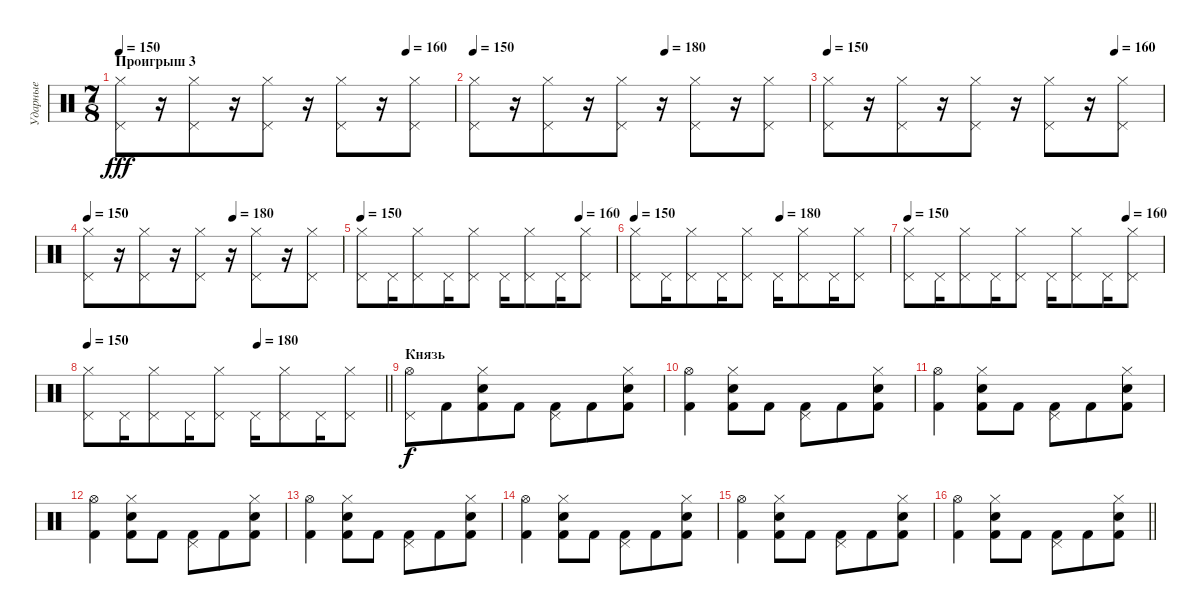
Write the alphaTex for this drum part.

\track ("Ударные" "Ударные") {instrument percussion}
\staff {score}
\articulation defaults
\ts (7 8)
\section ("" "Проигрыш 3")
\tempo 150
\tempo (160 0.8571428571428571)
\clef neutral
\ks c
("Pedal Hi-Hat (hit)" "Hi-Hat (closed)").8{dy fff} r.16 ("Pedal Hi-Hat (hit)" "Hi-Hat (closed)").8 r.16 ("Pedal Hi-Hat (hit)" "Hi-Hat (closed)").8 r.16 ("Pedal Hi-Hat (hit)" "Hi-Hat (closed)").8 r.16 ("Pedal Hi-Hat (hit)" "Hi-Hat (closed)").8 |
\tempo 150
\tempo (180 0.5714285714285714)
("Pedal Hi-Hat (hit)" "Hi-Hat (closed)").8 r.16 ("Pedal Hi-Hat (hit)" "Hi-Hat (closed)").8 r.16 ("Pedal Hi-Hat (hit)" "Hi-Hat (closed)").8 r.16 ("Pedal Hi-Hat (hit)" "Hi-Hat (closed)").8 r.16 ("Pedal Hi-Hat (hit)" "Hi-Hat (closed)").8 |
\tempo 150
\tempo (160 0.8571428571428571)
("Pedal Hi-Hat (hit)" "Hi-Hat (closed)").8 r.16 ("Pedal Hi-Hat (hit)" "Hi-Hat (closed)").8 r.16 ("Pedal Hi-Hat (hit)" "Hi-Hat (closed)").8 r.16 ("Pedal Hi-Hat (hit)" "Hi-Hat (closed)").8 r.16 ("Pedal Hi-Hat (hit)" "Hi-Hat (closed)").8 |
\tempo 150
\tempo (180 0.5714285714285714)
("Pedal Hi-Hat (hit)" "Hi-Hat (closed)").8 r.16 ("Pedal Hi-Hat (hit)" "Hi-Hat (closed)").8 r.16 ("Pedal Hi-Hat (hit)" "Hi-Hat (closed)").8 r.16 ("Pedal Hi-Hat (hit)" "Hi-Hat (closed)").8 r.16 ("Pedal Hi-Hat (hit)" "Hi-Hat (closed)").8 |
\tempo 150
\tempo (160 0.8571428571428571)
("Pedal Hi-Hat (hit)" "Hi-Hat (closed)").8 "Pedal Hi-Hat (hit)".16 ("Pedal Hi-Hat (hit)" "Hi-Hat (closed)").8 "Pedal Hi-Hat (hit)".16 ("Pedal Hi-Hat (hit)" "Hi-Hat (closed)").8 "Pedal Hi-Hat (hit)".16 ("Pedal Hi-Hat (hit)" "Hi-Hat (closed)").8 "Pedal Hi-Hat (hit)".16 ("Pedal Hi-Hat (hit)" "Hi-Hat (closed)").8 |
\tempo 150
\tempo (180 0.5714285714285714)
("Pedal Hi-Hat (hit)" "Hi-Hat (closed)").8 "Pedal Hi-Hat (hit)".16 ("Pedal Hi-Hat (hit)" "Hi-Hat (closed)").8 "Pedal Hi-Hat (hit)".16 ("Pedal Hi-Hat (hit)" "Hi-Hat (closed)").8 "Pedal Hi-Hat (hit)".16 ("Pedal Hi-Hat (hit)" "Hi-Hat (closed)").8 "Pedal Hi-Hat (hit)".16 ("Pedal Hi-Hat (hit)" "Hi-Hat (closed)").8 |
\tempo 150
\tempo (160 0.8571428571428571)
("Pedal Hi-Hat (hit)" "Hi-Hat (closed)").8 "Pedal Hi-Hat (hit)".16 ("Pedal Hi-Hat (hit)" "Hi-Hat (closed)").8 "Pedal Hi-Hat (hit)".16 ("Pedal Hi-Hat (hit)" "Hi-Hat (closed)").8 "Pedal Hi-Hat (hit)".16 ("Pedal Hi-Hat (hit)" "Hi-Hat (closed)").8 "Pedal Hi-Hat (hit)".16 ("Pedal Hi-Hat (hit)" "Hi-Hat (closed)").8 |
\tempo 150
\tempo (180 0.5714285714285714)
\barLineRight lightlight
("Pedal Hi-Hat (hit)" "Hi-Hat (closed)").8 "Pedal Hi-Hat (hit)".16 ("Pedal Hi-Hat (hit)" "Hi-Hat (closed)").8 "Pedal Hi-Hat (hit)".16 ("Pedal Hi-Hat (hit)" "Hi-Hat (closed)").8 "Pedal Hi-Hat (hit)".16 ("Pedal Hi-Hat (hit)" "Hi-Hat (closed)").8 "Pedal Hi-Hat (hit)".16 ("Pedal Hi-Hat (hit)" "Hi-Hat (closed)").8 |
\section ("" "Князь")
("Pedal Hi-Hat (hit)" "Hi-Hat (open)").8{dy f} "Kick (hit) 2".8 ("Hi-Hat (closed)" "Kick (hit) 2" "Electric Snare (hit)").8 "Kick (hit) 2".8 ("Pedal Hi-Hat (hit)" "Kick (hit) 2").8 "Kick (hit) 2".8 ("Hi-Hat (closed)" "Kick (hit) 2" "Electric Snare (hit)").8 |
("Hi-Hat (open)" "Kick (hit) 2").4 ("Hi-Hat (closed)" "Kick (hit) 2" "Electric Snare (hit)").8 "Kick (hit) 2".8 ("Pedal Hi-Hat (hit)" "Kick (hit) 2").8 "Kick (hit) 2".8 ("Hi-Hat (closed)" "Kick (hit) 2" "Electric Snare (hit)").8 |
("Hi-Hat (open)" "Kick (hit) 2").4 ("Hi-Hat (closed)" "Kick (hit) 2" "Electric Snare (hit)").8 "Kick (hit) 2".8 ("Pedal Hi-Hat (hit)" "Kick (hit) 2").8 "Kick (hit) 2".8 ("Hi-Hat (closed)" "Kick (hit) 2" "Electric Snare (hit)").8 |
("Hi-Hat (open)" "Kick (hit) 2").4 ("Hi-Hat (closed)" "Kick (hit) 2" "Electric Snare (hit)").8 "Kick (hit) 2".8 ("Pedal Hi-Hat (hit)" "Kick (hit) 2").8 "Kick (hit) 2".8 ("Hi-Hat (closed)" "Kick (hit) 2" "Electric Snare (hit)").8 |
("Hi-Hat (open)" "Kick (hit) 2").4 ("Hi-Hat (closed)" "Kick (hit) 2" "Electric Snare (hit)").8 "Kick (hit) 2".8 ("Pedal Hi-Hat (hit)" "Kick (hit) 2").8 "Kick (hit) 2".8 ("Hi-Hat (closed)" "Kick (hit) 2" "Electric Snare (hit)").8 |
("Hi-Hat (open)" "Kick (hit) 2").4 ("Hi-Hat (closed)" "Kick (hit) 2" "Electric Snare (hit)").8 "Kick (hit) 2".8 ("Pedal Hi-Hat (hit)" "Kick (hit) 2").8 "Kick (hit) 2".8 ("Hi-Hat (closed)" "Kick (hit) 2" "Electric Snare (hit)").8 |
("Hi-Hat (open)" "Kick (hit) 2").4 ("Hi-Hat (closed)" "Kick (hit) 2" "Electric Snare (hit)").8 "Kick (hit) 2".8 ("Pedal Hi-Hat (hit)" "Kick (hit) 2").8 "Kick (hit) 2".8 ("Hi-Hat (closed)" "Kick (hit) 2" "Electric Snare (hit)").8 |
\barLineRight lightlight
("Hi-Hat (open)" "Kick (hit) 2").4 ("Hi-Hat (closed)" "Kick (hit) 2" "Electric Snare (hit)").8 "Kick (hit) 2".8 ("Pedal Hi-Hat (hit)" "Kick (hit) 2").8 "Kick (hit) 2".8 ("Hi-Hat (closed)" "Kick (hit) 2" "Electric Snare (hit)").8
